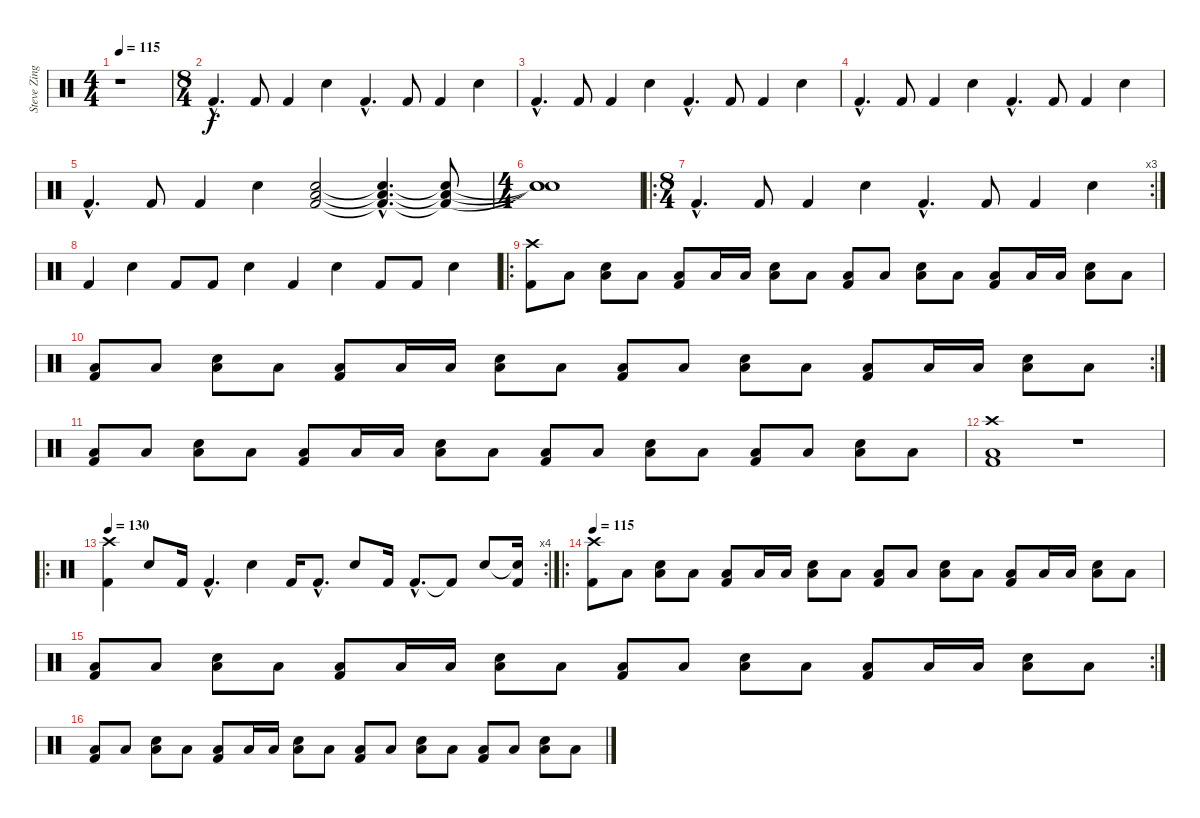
\track ("Steve Zing- Drums" "Steve Zing") {instrument percussion}
\staff {score}
\articulation defaults
\ts (4 4)
\tempo 115
\clef neutral
\ks c
r.1{dy f} |
\ts (8 4)
"Kick (hit) 2"{hac}.4{d} "Kick (hit) 2".8 "Kick (hit) 2".4 "Snare (hit) 2".4 "Kick (hit) 2"{hac}.4{d} "Kick (hit) 2".8 "Kick (hit) 2".4 "Snare (hit) 2".4 |
"Kick (hit) 2"{hac}.4{d} "Kick (hit) 2".8 "Kick (hit) 2".4 "Snare (hit) 2".4 "Kick (hit) 2"{hac}.4{d} "Kick (hit) 2".8 "Kick (hit) 2".4 "Snare (hit) 2".4 |
"Kick (hit) 2"{hac}.4{d} "Kick (hit) 2".8 "Kick (hit) 2".4 "Snare (hit) 2".4 "Kick (hit) 2"{hac}.4{d} "Kick (hit) 2".8 "Kick (hit) 2".4 "Snare (hit) 2".4 |
"Kick (hit) 2"{hac}.4{d} "Kick (hit) 2".8 "Kick (hit) 2".4 "Snare (hit) 2".4 ("Low Floor Tom (hit)" "Snare (hit) 2" "Kick (hit) 2").2 ("Low Floor Tom (hit)"{hac t} "Snare (hit) 2"{hac t} "Kick (hit) 2"{hac t}).4{d} ("Low Floor Tom (hit)"{t} "Snare (hit) 2"{t} "Kick (hit) 2"{t}).8 |
\ts (4 4)
("Snare (hit)"{t} "Snare (hit)"{t} "Snare (hit)"{t}).1 |
\ro
\rc 3
\ts (8 4)
"Kick (hit) 2"{hac}.4{d} "Kick (hit) 2".8 "Kick (hit) 2".4 "Snare (hit) 2".4 "Kick (hit) 2"{hac}.4{d} "Kick (hit) 2".8 "Kick (hit) 2".4 "Snare (hit) 2".4 |
"Kick (hit) 2".4 "Snare (hit) 2".4 "Kick (hit) 2".8 "Kick (hit) 2".8 "Snare (hit) 2".4 "Kick (hit) 2".4 "Snare (hit) 2".4 "Kick (hit) 2".8 "Kick (hit) 2".8 "Snare (hit) 2".4 |
\ro
("Kick (hit) 2" "Crash high (hit)").8 "Low Floor Tom (hit)".8 ("Snare (hit) 2" "Low Floor Tom (hit)").8 "Low Floor Tom (hit)".8 ("Kick (hit) 2" "Low Floor Tom (hit)").8 "Low Floor Tom (hit)".16 "Low Floor Tom (hit)".16 ("Snare (hit) 2" "Low Floor Tom (hit)").8 "Low Floor Tom (hit)".8 ("Kick (hit) 2" "Low Floor Tom (hit)").8 "Low Floor Tom (hit)".8 ("Snare (hit) 2" "Low Floor Tom (hit)").8 "Low Floor Tom (hit)".8 ("Kick (hit) 2" "Low Floor Tom (hit)").8 "Low Floor Tom (hit)".16 "Low Floor Tom (hit)".16 ("Snare (hit) 2" "Low Floor Tom (hit)").8 "Low Floor Tom (hit)".8 |
\rc 2
("Kick (hit) 2" "Low Floor Tom (hit)").8 "Low Floor Tom (hit)".8 ("Snare (hit) 2" "Low Floor Tom (hit)").8 "Low Floor Tom (hit)".8 ("Kick (hit) 2" "Low Floor Tom (hit)").8 "Low Floor Tom (hit)".16 "Low Floor Tom (hit)".16 ("Snare (hit) 2" "Low Floor Tom (hit)").8 "Low Floor Tom (hit)".8 ("Kick (hit) 2" "Low Floor Tom (hit)").8 "Low Floor Tom (hit)".8 ("Snare (hit) 2" "Low Floor Tom (hit)").8 "Low Floor Tom (hit)".8 ("Kick (hit) 2" "Low Floor Tom (hit)").8 "Low Floor Tom (hit)".16 "Low Floor Tom (hit)".16 ("Snare (hit) 2" "Low Floor Tom (hit)").8 "Low Floor Tom (hit)".8 |
("Kick (hit) 2" "Low Floor Tom (hit)").8 "Low Floor Tom (hit)".8 ("Snare (hit) 2" "Low Floor Tom (hit)").8 "Low Floor Tom (hit)".8 ("Kick (hit) 2" "Low Floor Tom (hit)").8 "Low Floor Tom (hit)".16 "Low Floor Tom (hit)".16 ("Snare (hit) 2" "Low Floor Tom (hit)").8 "Low Floor Tom (hit)".8 ("Kick (hit) 2" "Low Floor Tom (hit)").8 "Low Floor Tom (hit)".8 ("Snare (hit) 2" "Low Floor Tom (hit)").8 "Low Floor Tom (hit)".8 ("Kick (hit) 2" "Low Floor Tom (hit)").8 "Low Floor Tom (hit)".8 ("Snare (hit) 2" "Low Floor Tom (hit)").8 "Low Floor Tom (hit)".8 |
("Crash high (hit)" "Kick (hit) 2" "Low Floor Tom (hit)").1 r.1 |
\ro
\rc 4
\tempo 130
("Crash high (hit)" "Kick (hit) 2").4 "Snare (hit) 2".8 "Kick (hit) 2".16 "Kick (hit) 2"{hac}.4{d} "Snare (hit) 2".4 "Kick (hit) 2".16 "Kick (hit) 2"{hac}.8{d} "Snare (hit) 2".8 "Kick (hit) 2".16 "Kick (hit) 2"{hac}.8{d} "Kick (hit) 2"{t}.8 "Snare (hit) 2".8 ("Snare (hit) 2"{t} "Kick (hit) 2").16 |
\ro
\tempo 115
("Kick (hit) 2" "Crash high (hit)").8 "Low Floor Tom (hit)".8 ("Snare (hit) 2" "Low Floor Tom (hit)").8 "Low Floor Tom (hit)".8 ("Kick (hit) 2" "Low Floor Tom (hit)").8 "Low Floor Tom (hit)".16 "Low Floor Tom (hit)".16 ("Snare (hit) 2" "Low Floor Tom (hit)").8 "Low Floor Tom (hit)".8 ("Kick (hit) 2" "Low Floor Tom (hit)").8 "Low Floor Tom (hit)".8 ("Snare (hit) 2" "Low Floor Tom (hit)").8 "Low Floor Tom (hit)".8 ("Kick (hit) 2" "Low Floor Tom (hit)").8 "Low Floor Tom (hit)".16 "Low Floor Tom (hit)".16 ("Snare (hit) 2" "Low Floor Tom (hit)").8 "Low Floor Tom (hit)".8 |
\rc 2
("Kick (hit) 2" "Low Floor Tom (hit)").8 "Low Floor Tom (hit)".8 ("Snare (hit) 2" "Low Floor Tom (hit)").8 "Low Floor Tom (hit)".8 ("Kick (hit) 2" "Low Floor Tom (hit)").8 "Low Floor Tom (hit)".16 "Low Floor Tom (hit)".16 ("Snare (hit) 2" "Low Floor Tom (hit)").8 "Low Floor Tom (hit)".8 ("Kick (hit) 2" "Low Floor Tom (hit)").8 "Low Floor Tom (hit)".8 ("Snare (hit) 2" "Low Floor Tom (hit)").8 "Low Floor Tom (hit)".8 ("Kick (hit) 2" "Low Floor Tom (hit)").8 "Low Floor Tom (hit)".16 "Low Floor Tom (hit)".16 ("Snare (hit) 2" "Low Floor Tom (hit)").8 "Low Floor Tom (hit)".8 |
("Kick (hit) 2" "Low Floor Tom (hit)").8 "Low Floor Tom (hit)".8 ("Snare (hit) 2" "Low Floor Tom (hit)").8 "Low Floor Tom (hit)".8 ("Kick (hit) 2" "Low Floor Tom (hit)").8 "Low Floor Tom (hit)".16 "Low Floor Tom (hit)".16 ("Snare (hit) 2" "Low Floor Tom (hit)").8 "Low Floor Tom (hit)".8 ("Kick (hit) 2" "Low Floor Tom (hit)").8 "Low Floor Tom (hit)".8 ("Snare (hit) 2" "Low Floor Tom (hit)").8 "Low Floor Tom (hit)".8 ("Kick (hit) 2" "Low Floor Tom (hit)").8 "Low Floor Tom (hit)".8 ("Snare (hit) 2" "Low Floor Tom (hit)").8 "Low Floor Tom (hit)".8
